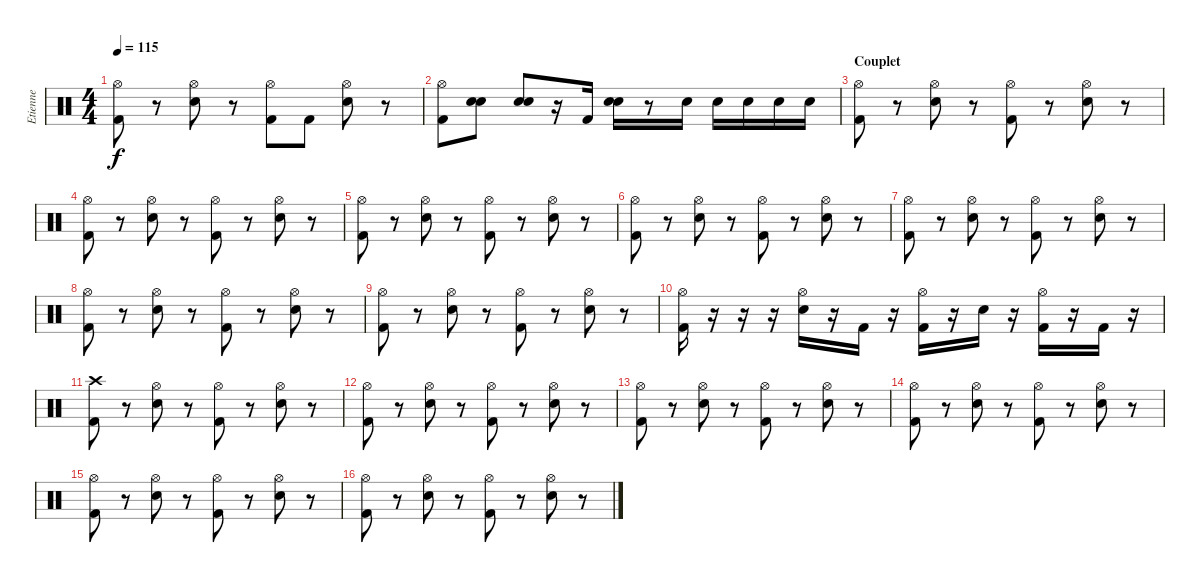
\track ("Etienne" "Etienne") {instrument percussion}
\staff {score}
\articulation defaults
\ts (4 4)
\tempo 115
\clef neutral
\ks c
("Hi-Hat (open)" "Kick (hit) 2").8{dy f} r.8 ("Hi-Hat (open)" "Electric Snare (hit)").8 r.8 ("Hi-Hat (open)" "Kick (hit) 2").8 "Kick (hit) 2".8 ("Hi-Hat (open)" "Electric Snare (hit)").8 r.8 |
("Hi-Hat (open)" "Kick (hit) 2").8 ("Electric Snare (hit)" "Electric Snare (hit)").8 ("Electric Snare (hit)" "Electric Snare (hit)").8 r.16 "Kick (hit) 2".16 ("Electric Snare (hit)" "Electric Snare (hit)").16 r.8 "Electric Snare (hit)".16 "Electric Snare (hit)".16 "Electric Snare (hit)".16 "Electric Snare (hit)".16 "Electric Snare (hit)".16 |
\section ("" "Couplet")
("Hi-Hat (open)" "Kick (hit) 2").8 r.8 ("Hi-Hat (open)" "Electric Snare (hit)").8 r.8 ("Hi-Hat (open)" "Kick (hit) 2").8 r.8 ("Hi-Hat (open)" "Electric Snare (hit)").8 r.8 |
("Hi-Hat (open)" "Kick (hit) 2").8 r.8 ("Hi-Hat (open)" "Electric Snare (hit)").8 r.8 ("Hi-Hat (open)" "Kick (hit) 2").8 r.8 ("Hi-Hat (open)" "Electric Snare (hit)").8 r.8 |
("Hi-Hat (open)" "Kick (hit) 2").8 r.8 ("Hi-Hat (open)" "Electric Snare (hit)").8 r.8 ("Hi-Hat (open)" "Kick (hit) 2").8 r.8 ("Hi-Hat (open)" "Electric Snare (hit)").8 r.8 |
("Hi-Hat (open)" "Kick (hit) 2").8 r.8 ("Hi-Hat (open)" "Electric Snare (hit)").8 r.8 ("Hi-Hat (open)" "Kick (hit) 2").8 r.8 ("Hi-Hat (open)" "Electric Snare (hit)").8 r.8 |
("Hi-Hat (open)" "Kick (hit) 2").8 r.8 ("Hi-Hat (open)" "Electric Snare (hit)").8 r.8 ("Hi-Hat (open)" "Kick (hit) 2").8 r.8 ("Hi-Hat (open)" "Electric Snare (hit)").8 r.8 |
("Hi-Hat (open)" "Kick (hit) 2").8 r.8 ("Hi-Hat (open)" "Electric Snare (hit)").8 r.8 ("Hi-Hat (open)" "Kick (hit) 2").8 r.8 ("Hi-Hat (open)" "Electric Snare (hit)").8 r.8 |
("Hi-Hat (open)" "Kick (hit) 2").8 r.8 ("Hi-Hat (open)" "Electric Snare (hit)").8 r.8 ("Hi-Hat (open)" "Kick (hit) 2").8 r.8 ("Hi-Hat (open)" "Electric Snare (hit)").8 r.8 |
("Hi-Hat (open)" "Kick (hit) 2").16 r.16 r.16 r.16 ("Hi-Hat (open)" "Electric Snare (hit)").16 r.16 "Kick (hit) 2".16 r.16 ("Hi-Hat (open)" "Kick (hit) 2").16 r.16 "Electric Snare (hit)".16 r.16 ("Hi-Hat (open)" "Kick (hit) 2").16 r.16 "Kick (hit) 2".16 r.16 |
("Crash high (hit)" "Kick (hit) 2").8 r.8 ("Hi-Hat (open)" "Electric Snare (hit)").8 r.8 ("Hi-Hat (open)" "Kick (hit) 2").8 r.8 ("Hi-Hat (open)" "Electric Snare (hit)").8 r.8 |
("Hi-Hat (open)" "Kick (hit) 2").8 r.8 ("Hi-Hat (open)" "Electric Snare (hit)").8 r.8 ("Hi-Hat (open)" "Kick (hit) 2").8 r.8 ("Hi-Hat (open)" "Electric Snare (hit)").8 r.8 |
("Hi-Hat (open)" "Kick (hit) 2").8 r.8 ("Hi-Hat (open)" "Electric Snare (hit)").8 r.8 ("Hi-Hat (open)" "Kick (hit) 2").8 r.8 ("Hi-Hat (open)" "Electric Snare (hit)").8 r.8 |
("Hi-Hat (open)" "Kick (hit) 2").8 r.8 ("Hi-Hat (open)" "Electric Snare (hit)").8 r.8 ("Hi-Hat (open)" "Kick (hit) 2").8 r.8 ("Hi-Hat (open)" "Electric Snare (hit)").8 r.8 |
("Hi-Hat (open)" "Kick (hit) 2").8 r.8 ("Hi-Hat (open)" "Electric Snare (hit)").8 r.8 ("Hi-Hat (open)" "Kick (hit) 2").8 r.8 ("Hi-Hat (open)" "Electric Snare (hit)").8 r.8 |
("Hi-Hat (open)" "Kick (hit) 2").8 r.8 ("Hi-Hat (open)" "Electric Snare (hit)").8 r.8 ("Hi-Hat (open)" "Kick (hit) 2").8 r.8 ("Hi-Hat (open)" "Electric Snare (hit)").8 r.8
